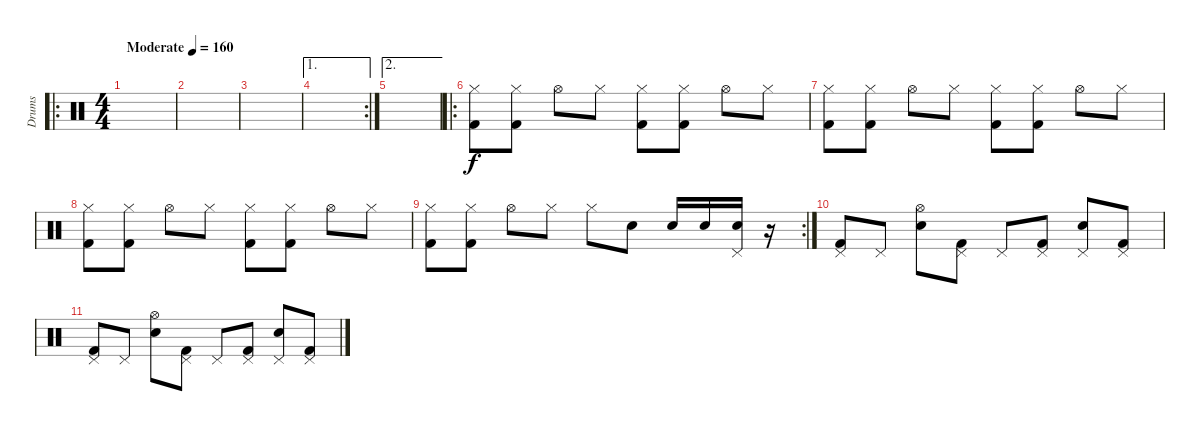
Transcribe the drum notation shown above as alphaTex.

\track ("Drums" "Drums") {instrument percussion}
\staff {score}
\articulation defaults
\ro
\ts (4 4)
\tempo (160 "Moderate")
\clef neutral
\ks c
|
|
|
\ae 1
\rc 2
|
\ae 2
|
\ro
("Kick (hit) 2" "Hi-Hat (closed)").8 ("Kick (hit) 2" "Hi-Hat (closed)").8 "Hi-Hat (open)".8 "Hi-Hat (closed)".8 ("Kick (hit) 2" "Hi-Hat (closed)").8 ("Kick (hit) 2" "Hi-Hat (closed)").8 "Hi-Hat (open)".8 "Hi-Hat (closed)".8 |
("Kick (hit) 2" "Hi-Hat (closed)").8 ("Kick (hit) 2" "Hi-Hat (closed)").8 "Hi-Hat (open)".8 "Hi-Hat (closed)".8 ("Kick (hit) 2" "Hi-Hat (closed)").8 ("Kick (hit) 2" "Hi-Hat (closed)").8 "Hi-Hat (open)".8 "Hi-Hat (closed)".8 |
("Kick (hit) 2" "Hi-Hat (closed)").8 ("Kick (hit) 2" "Hi-Hat (closed)").8 "Hi-Hat (open)".8 "Hi-Hat (closed)".8 ("Kick (hit) 2" "Hi-Hat (closed)").8 ("Kick (hit) 2" "Hi-Hat (closed)").8 "Hi-Hat (open)".8 "Hi-Hat (closed)".8 |
\rc 2
("Kick (hit) 2" "Hi-Hat (closed)").8 ("Kick (hit) 2" "Hi-Hat (closed)").8 "Hi-Hat (open)".8 "Hi-Hat (closed)".8 "Hi-Hat (closed)".8 "Electric Snare (hit)".8 "Snare (hit) 2".16 "Snare (hit) 2".16 ("Pedal Hi-Hat (hit)" "Snare (hit) 2").16 r.16 |
("Kick (hit) 2" "Pedal Hi-Hat (hit)").8 "Pedal Hi-Hat (hit)".8 ("Snare (hit) 2" "Hi-Hat (open)").8 ("Kick (hit) 2" "Pedal Hi-Hat (hit)").8 "Pedal Hi-Hat (hit)".8 ("Kick (hit) 2" "Pedal Hi-Hat (hit)").8 ("Snare (hit) 2" "Pedal Hi-Hat (hit)").8 ("Kick (hit) 2" "Pedal Hi-Hat (hit)").8 |
("Kick (hit) 2" "Pedal Hi-Hat (hit)").8 "Pedal Hi-Hat (hit)".8 ("Snare (hit) 2" "Hi-Hat (open)").8 ("Kick (hit) 2" "Pedal Hi-Hat (hit)").8 "Pedal Hi-Hat (hit)".8 ("Kick (hit) 2" "Pedal Hi-Hat (hit)").8 ("Snare (hit) 2" "Pedal Hi-Hat (hit)").8 ("Kick (hit) 2" "Pedal Hi-Hat (hit)").8
